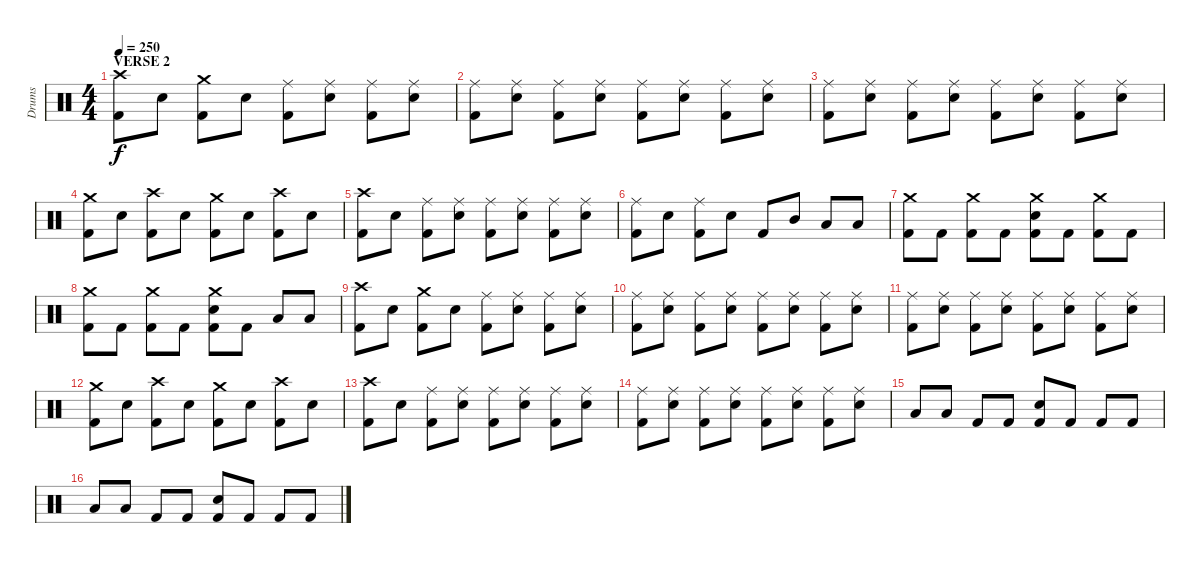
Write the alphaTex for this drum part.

\track ("Drums" "Drums") {instrument percussion}
\staff {score}
\articulation defaults
\ts (4 4)
\section ("" "VERSE 2")
\tempo 250
\clef neutral
\ks c
("Crash high (hit)" "Kick (hit) 2").8{dy f} "Electric Snare (hit)".8 ("Crash medium (hit)" "Kick (hit) 2").8 "Electric Snare (hit)".8 ("Ride (middle)" "Kick (hit) 2").8 ("Ride (middle)" "Electric Snare (hit)").8 ("Ride (middle)" "Kick (hit) 2").8 ("Ride (middle)" "Electric Snare (hit)").8 |
("Ride (middle)" "Kick (hit) 2").8 ("Ride (middle)" "Electric Snare (hit)").8 ("Ride (middle)" "Kick (hit) 2").8 ("Ride (middle)" "Electric Snare (hit)").8 ("Ride (middle)" "Kick (hit) 2").8 ("Ride (middle)" "Electric Snare (hit)").8 ("Ride (middle)" "Kick (hit) 2").8 ("Ride (middle)" "Electric Snare (hit)").8 |
("Ride (middle)" "Kick (hit) 2").8 ("Ride (middle)" "Electric Snare (hit)").8 ("Ride (middle)" "Kick (hit) 2").8 ("Ride (middle)" "Electric Snare (hit)").8 ("Ride (middle)" "Kick (hit) 2").8 ("Ride (middle)" "Electric Snare (hit)").8 ("Ride (middle)" "Kick (hit) 2").8 ("Ride (middle)" "Electric Snare (hit)").8 |
("Crash medium (hit)" "Kick (hit) 2").8 "Electric Snare (hit)".8 ("Crash high (hit)" "Kick (hit) 2").8 "Electric Snare (hit)".8 ("Crash medium (hit)" "Kick (hit) 2").8 "Electric Snare (hit)".8 ("Crash high (hit)" "Kick (hit) 2").8 "Electric Snare (hit)".8 |
("Crash high (hit)" "Kick (hit) 2").8 "Electric Snare (hit)".8 ("Ride (middle)" "Kick (hit) 2").8 ("Ride (middle)" "Electric Snare (hit)").8 ("Ride (middle)" "Kick (hit) 2").8 ("Ride (middle)" "Electric Snare (hit)").8 ("Ride (middle)" "Kick (hit) 2").8 ("Ride (middle)" "Electric Snare (hit)").8 |
("Ride (middle)" "Kick (hit) 2").8 "Electric Snare (hit)".8 ("Ride (middle)" "Kick (hit) 2").8 "Electric Snare (hit)".8 "Kick (hit) 2".8 "Mid Tom (hit)".8 "Low Tom (hit)".8 "Low Floor Tom (hit)".8 |
("Crash medium (hit)" "Kick (hit) 2").8 "Kick (hit) 2".8 ("Crash medium (hit)" "Kick (hit) 2").8 "Kick (hit) 2".8 ("Crash medium (hit)" "Electric Snare (hit)" "Kick (hit) 2").8 "Kick (hit) 2".8 ("Crash medium (hit)" "Kick (hit) 2").8 "Kick (hit) 2".8 |
("Crash medium (hit)" "Kick (hit) 2").8 "Kick (hit) 2".8 ("Crash medium (hit)" "Kick (hit) 2").8 "Kick (hit) 2".8 ("Crash medium (hit)" "Electric Snare (hit)" "Kick (hit) 2").8 "Kick (hit) 2".8 "Low Tom (hit)".8 "Low Floor Tom (hit)".8 |
("Crash high (hit)" "Kick (hit) 2").8 "Electric Snare (hit)".8 ("Crash medium (hit)" "Kick (hit) 2").8 "Electric Snare (hit)".8 ("Ride (middle)" "Kick (hit) 2").8 ("Ride (middle)" "Electric Snare (hit)").8 ("Ride (middle)" "Kick (hit) 2").8 ("Ride (middle)" "Electric Snare (hit)").8 |
("Ride (middle)" "Kick (hit) 2").8 ("Ride (middle)" "Electric Snare (hit)").8 ("Ride (middle)" "Kick (hit) 2").8 ("Ride (middle)" "Electric Snare (hit)").8 ("Ride (middle)" "Kick (hit) 2").8 ("Ride (middle)" "Electric Snare (hit)").8 ("Ride (middle)" "Kick (hit) 2").8 ("Ride (middle)" "Electric Snare (hit)").8 |
("Ride (middle)" "Kick (hit) 2").8 ("Ride (middle)" "Electric Snare (hit)").8 ("Ride (middle)" "Kick (hit) 2").8 ("Ride (middle)" "Electric Snare (hit)").8 ("Ride (middle)" "Kick (hit) 2").8 ("Ride (middle)" "Electric Snare (hit)").8 ("Ride (middle)" "Kick (hit) 2").8 ("Ride (middle)" "Electric Snare (hit)").8 |
("Crash medium (hit)" "Kick (hit) 2").8 "Electric Snare (hit)".8 ("Crash high (hit)" "Kick (hit) 2").8 "Electric Snare (hit)".8 ("Crash medium (hit)" "Kick (hit) 2").8 "Electric Snare (hit)".8 ("Crash high (hit)" "Kick (hit) 2").8 "Electric Snare (hit)".8 |
("Crash high (hit)" "Kick (hit) 2").8 "Electric Snare (hit)".8 ("Ride (middle)" "Kick (hit) 2").8 ("Ride (middle)" "Electric Snare (hit)").8 ("Ride (middle)" "Kick (hit) 2").8 ("Ride (middle)" "Electric Snare (hit)").8 ("Ride (middle)" "Kick (hit) 2").8 ("Ride (middle)" "Electric Snare (hit)").8 |
("Ride (middle)" "Kick (hit) 2").8 ("Ride (middle)" "Electric Snare (hit)").8 ("Ride (middle)" "Kick (hit) 2").8 ("Ride (middle)" "Electric Snare (hit)").8 ("Ride (middle)" "Kick (hit) 2").8 ("Ride (middle)" "Electric Snare (hit)").8 ("Ride (middle)" "Kick (hit) 2").8 ("Ride (middle)" "Electric Snare (hit)").8 |
"Low Tom (hit)".8 "Low Floor Tom (hit)".8 "Kick (hit) 2".8 "Kick (hit) 2".8 ("Electric Snare (hit)" "Kick (hit) 2").8 "Kick (hit) 2".8 "Kick (hit) 2".8 "Kick (hit) 2".8 |
"Low Tom (hit)".8 "Low Floor Tom (hit)".8 "Kick (hit) 2".8 "Kick (hit) 2".8 ("Electric Snare (hit)" "Kick (hit) 2").8 "Kick (hit) 2".8 "Kick (hit) 2".8 "Kick (hit) 2".8
